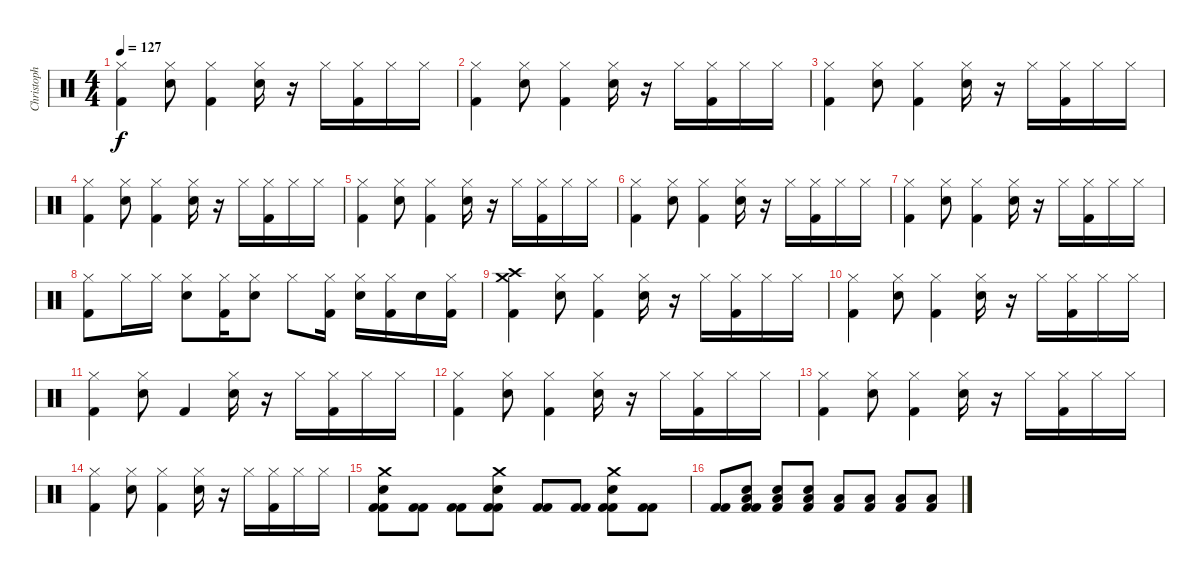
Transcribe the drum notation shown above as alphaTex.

\track ("Christoph Schneider - Drums" "Christoph ") {instrument percussion}
\staff {score}
\articulation defaults
\ts (4 4)
\tempo 127
\clef neutral
\ks c
("Hi-Hat (closed)" "Kick (hit) 2").4{dy f} ("Hi-Hat (closed)" "Electric Snare (hit)").8 ("Hi-Hat (closed)" "Kick (hit) 2").4 ("Hi-Hat (closed)" "Electric Snare (hit)").16 r.16 "Hi-Hat (closed)".16 ("Hi-Hat (closed)" "Kick (hit) 2").16 "Hi-Hat (closed)".16 "Hi-Hat (closed)".16 |
("Hi-Hat (closed)" "Kick (hit) 2").4 ("Hi-Hat (closed)" "Electric Snare (hit)").8 ("Hi-Hat (closed)" "Kick (hit) 2").4 ("Hi-Hat (closed)" "Electric Snare (hit)").16 r.16 "Hi-Hat (closed)".16 ("Hi-Hat (closed)" "Kick (hit) 2").16 "Hi-Hat (closed)".16 "Hi-Hat (closed)".16 |
("Hi-Hat (closed)" "Kick (hit) 2").4 ("Hi-Hat (closed)" "Electric Snare (hit)").8 ("Hi-Hat (closed)" "Kick (hit) 2").4 ("Hi-Hat (closed)" "Electric Snare (hit)").16 r.16 "Hi-Hat (closed)".16 ("Hi-Hat (closed)" "Kick (hit) 2").16 "Hi-Hat (closed)".16 "Hi-Hat (closed)".16 |
("Hi-Hat (closed)" "Kick (hit) 2").4 ("Hi-Hat (closed)" "Electric Snare (hit)").8 ("Hi-Hat (closed)" "Kick (hit) 2").4 ("Hi-Hat (closed)" "Electric Snare (hit)").16 r.16 "Hi-Hat (closed)".16 ("Hi-Hat (closed)" "Kick (hit) 2").16 "Hi-Hat (closed)".16 "Hi-Hat (closed)".16 |
("Hi-Hat (closed)" "Kick (hit) 2").4 ("Hi-Hat (closed)" "Electric Snare (hit)").8 ("Hi-Hat (closed)" "Kick (hit) 2").4 ("Hi-Hat (closed)" "Electric Snare (hit)").16 r.16 "Hi-Hat (closed)".16 ("Hi-Hat (closed)" "Kick (hit) 2").16 "Hi-Hat (closed)".16 "Hi-Hat (closed)".16 |
("Hi-Hat (closed)" "Kick (hit) 2").4 ("Hi-Hat (closed)" "Electric Snare (hit)").8 ("Hi-Hat (closed)" "Kick (hit) 2").4 ("Hi-Hat (closed)" "Electric Snare (hit)").16 r.16 "Hi-Hat (closed)".16 ("Hi-Hat (closed)" "Kick (hit) 2").16 "Hi-Hat (closed)".16 "Hi-Hat (closed)".16 |
("Hi-Hat (closed)" "Kick (hit) 2").4 ("Hi-Hat (closed)" "Electric Snare (hit)").8 ("Hi-Hat (closed)" "Kick (hit) 2").4 ("Hi-Hat (closed)" "Electric Snare (hit)").16 r.16 "Hi-Hat (closed)".16 ("Hi-Hat (closed)" "Kick (hit) 2").16 "Hi-Hat (closed)".16 "Hi-Hat (closed)".16 |
("Hi-Hat (closed)" "Kick (hit) 2").8 "Hi-Hat (closed)".16 "Hi-Hat (closed)".16 ("Hi-Hat (closed)" "Electric Snare (hit)").8 ("Hi-Hat (closed)" "Kick (hit) 2").16 ("Hi-Hat (closed)" "Electric Snare (hit)").8 "Hi-Hat (closed)".8 ("Hi-Hat (closed)" "Kick (hit) 2").16 ("Hi-Hat (closed)" "Electric Snare (hit)").16 ("Hi-Hat (closed)" "Kick (hit) 2").16 "Electric Snare (hit)".16 ("Hi-Hat (closed)" "Kick (hit) 2").16 |
("Crash high (hit)" "Crash medium (hit)" "Kick (hit) 2").4 ("Hi-Hat (closed)" "Electric Snare (hit)").8 ("Hi-Hat (closed)" "Kick (hit) 2").4 ("Hi-Hat (closed)" "Electric Snare (hit)").16 r.16 "Hi-Hat (closed)".16 ("Hi-Hat (closed)" "Kick (hit) 2").16 "Hi-Hat (closed)".16 "Hi-Hat (closed)".16 |
("Hi-Hat (closed)" "Kick (hit) 2").4 ("Hi-Hat (closed)" "Electric Snare (hit)").8 ("Hi-Hat (closed)" "Kick (hit) 2").4 ("Hi-Hat (closed)" "Electric Snare (hit)").16 r.16 "Hi-Hat (closed)".16 ("Hi-Hat (closed)" "Kick (hit) 2").16 "Hi-Hat (closed)".16 "Hi-Hat (closed)".16 |
("Hi-Hat (closed)" "Kick (hit) 2").4 ("Hi-Hat (closed)" "Electric Snare (hit)").8 "Kick (hit) 2".4 ("Hi-Hat (closed)" "Electric Snare (hit)").16 r.16 "Hi-Hat (closed)".16 ("Hi-Hat (closed)" "Kick (hit) 2").16 "Hi-Hat (closed)".16 "Hi-Hat (closed)".16 |
("Hi-Hat (closed)" "Kick (hit) 2").4 ("Hi-Hat (closed)" "Electric Snare (hit)").8 ("Hi-Hat (closed)" "Kick (hit) 2").4 ("Hi-Hat (closed)" "Electric Snare (hit)").16 r.16 "Hi-Hat (closed)".16 ("Hi-Hat (closed)" "Kick (hit) 2").16 "Hi-Hat (closed)".16 "Hi-Hat (closed)".16 |
("Hi-Hat (closed)" "Kick (hit) 2").4 ("Hi-Hat (closed)" "Electric Snare (hit)").8 ("Hi-Hat (closed)" "Kick (hit) 2").4 ("Hi-Hat (closed)" "Electric Snare (hit)").16 r.16 "Hi-Hat (closed)".16 ("Hi-Hat (closed)" "Kick (hit) 2").16 "Hi-Hat (closed)".16 "Hi-Hat (closed)".16 |
("Hi-Hat (closed)" "Kick (hit) 2").4 ("Hi-Hat (closed)" "Electric Snare (hit)").8 ("Hi-Hat (closed)" "Kick (hit) 2").4 ("Hi-Hat (closed)" "Electric Snare (hit)").16 r.16 "Hi-Hat (closed)".16 ("Hi-Hat (closed)" "Kick (hit) 2").16 "Hi-Hat (closed)".16 "Hi-Hat (closed)".16 |
("Crash medium (hit)" "Electric Snare (hit)" "Kick (hit) 2" "Kick (hit) 2").8 ("Kick (hit) 2" "Kick (hit) 2").8 ("Kick (hit) 2" "Kick (hit) 2").8 ("Crash medium (hit)" "Electric Snare (hit)" "Kick (hit) 2" "Kick (hit) 2").8 ("Kick (hit) 2" "Kick (hit) 2").8 ("Kick (hit) 2" "Kick (hit) 2").8 ("Crash medium (hit)" "Electric Snare (hit)" "Kick (hit) 2" "Kick (hit) 2").8 ("Kick (hit) 2" "Kick (hit) 2").8 |
("Kick (hit) 2" "Kick (hit) 2").8{volume 11} ("Electric Snare (hit)" "Low Tom (hit)" "Kick (hit) 2" "Kick (hit) 2").8 ("Electric Snare (hit)" "Low Tom (hit)" "Kick (hit) 2").8 ("Electric Snare (hit)" "Low Tom (hit)" "Kick (hit) 2").8{balance 12} ("Low Tom (hit)" "Kick (hit) 2").8{balance 8} ("Low Tom (hit)" "Kick (hit) 2").8 ("Low Tom (hit)" "Kick (hit) 2").8 ("Low Tom (hit)" "Kick (hit) 2").8
